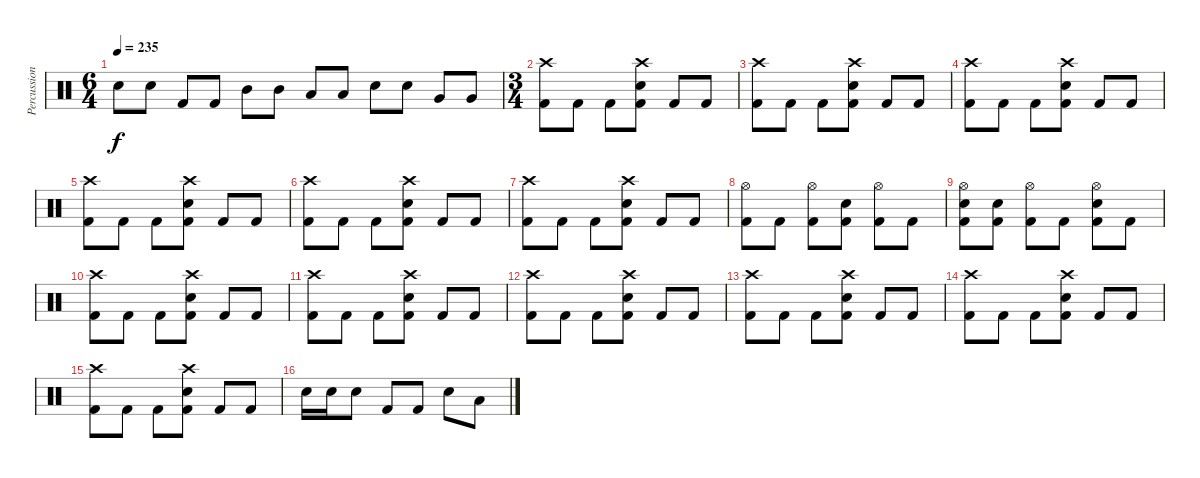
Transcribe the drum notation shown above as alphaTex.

\track ("Percussion" "Percussion") {instrument percussion}
\staff {score}
\articulation defaults
\ts (6 4)
\tempo 235
\clef neutral
\ks c "Electric Snare (hit)".8{dy f} "Electric Snare (hit)".8 "Kick (hit) 2".8 "Kick (hit) 2".8 "Mid Tom (hit)".8 "Mid Tom (hit)".8 "Low Tom (hit)".8 "Low Tom (hit)".8 "Electric Snare (hit)".8 "Electric Snare (hit)".8 "Very Low Tom (hit)".8 "Very Low Tom (hit)".8
|
\ts (3 4)
("Crash high (hit)" "Kick (hit) 2").8 "Kick (hit) 2".8 "Kick (hit) 2".8 ("Crash high (hit)" "Electric Snare (hit)" "Kick (hit) 2").8 "Kick (hit) 2".8 "Kick (hit) 2".8 |
("Crash high (hit)" "Kick (hit) 2").8 "Kick (hit) 2".8 "Kick (hit) 2".8 ("Crash high (hit)" "Electric Snare (hit)" "Kick (hit) 2").8 "Kick (hit) 2".8 "Kick (hit) 2".8 |
("Crash high (hit)" "Kick (hit) 2").8 "Kick (hit) 2".8 "Kick (hit) 2".8 ("Crash high (hit)" "Electric Snare (hit)" "Kick (hit) 2").8 "Kick (hit) 2".8 "Kick (hit) 2".8 |
("Crash high (hit)" "Kick (hit) 2").8 "Kick (hit) 2".8 "Kick (hit) 2".8 ("Crash high (hit)" "Electric Snare (hit)" "Kick (hit) 2").8 "Kick (hit) 2".8 "Kick (hit) 2".8 |
("Crash high (hit)" "Kick (hit) 2").8 "Kick (hit) 2".8 "Kick (hit) 2".8 ("Crash high (hit)" "Electric Snare (hit)" "Kick (hit) 2").8 "Kick (hit) 2".8 "Kick (hit) 2".8 |
("Crash high (hit)" "Kick (hit) 2").8 "Kick (hit) 2".8 "Kick (hit) 2".8 ("Crash high (hit)" "Electric Snare (hit)" "Kick (hit) 2").8 "Kick (hit) 2".8 "Kick (hit) 2".8 |
("Hi-Hat (open)" "Kick (hit) 2").8 "Kick (hit) 2".8 ("Hi-Hat (open)" "Kick (hit) 2").8 ("Electric Snare (hit)" "Kick (hit) 2").8 ("Hi-Hat (open)" "Kick (hit) 2").8 "Kick (hit) 2".8 |
("Hi-Hat (open)" "Electric Snare (hit)" "Kick (hit) 2").8 ("Electric Snare (hit)" "Kick (hit) 2").8 ("Hi-Hat (open)" "Kick (hit) 2").8 "Kick (hit) 2".8 ("Hi-Hat (open)" "Electric Snare (hit)" "Kick (hit) 2").8 "Kick (hit) 2".8 |
("Crash high (hit)" "Kick (hit) 2").8 "Kick (hit) 2".8 "Kick (hit) 2".8 ("Crash high (hit)" "Electric Snare (hit)" "Kick (hit) 2").8 "Kick (hit) 2".8 "Kick (hit) 2".8 |
("Crash high (hit)" "Kick (hit) 2").8 "Kick (hit) 2".8 "Kick (hit) 2".8 ("Crash high (hit)" "Electric Snare (hit)" "Kick (hit) 2").8 "Kick (hit) 2".8 "Kick (hit) 2".8 |
("Crash high (hit)" "Kick (hit) 2").8 "Kick (hit) 2".8 "Kick (hit) 2".8 ("Crash high (hit)" "Electric Snare (hit)" "Kick (hit) 2").8 "Kick (hit) 2".8 "Kick (hit) 2".8 |
("Crash high (hit)" "Kick (hit) 2").8 "Kick (hit) 2".8 "Kick (hit) 2".8 ("Crash high (hit)" "Electric Snare (hit)" "Kick (hit) 2").8 "Kick (hit) 2".8 "Kick (hit) 2".8 |
("Crash high (hit)" "Kick (hit) 2").8 "Kick (hit) 2".8 "Kick (hit) 2".8 ("Crash high (hit)" "Electric Snare (hit)" "Kick (hit) 2").8 "Kick (hit) 2".8 "Kick (hit) 2".8 |
("Crash high (hit)" "Kick (hit) 2").8 "Kick (hit) 2".8 "Kick (hit) 2".8 ("Crash high (hit)" "Electric Snare (hit)" "Kick (hit) 2").8 "Kick (hit) 2".8 "Kick (hit) 2".8 |
"Electric Snare (hit)".16 "Electric Snare (hit)".16 "Electric Snare (hit)".8 "Kick (hit) 2".8 "Kick (hit) 2".8 "Electric Snare (hit)".8 "Low Tom (hit)".8
